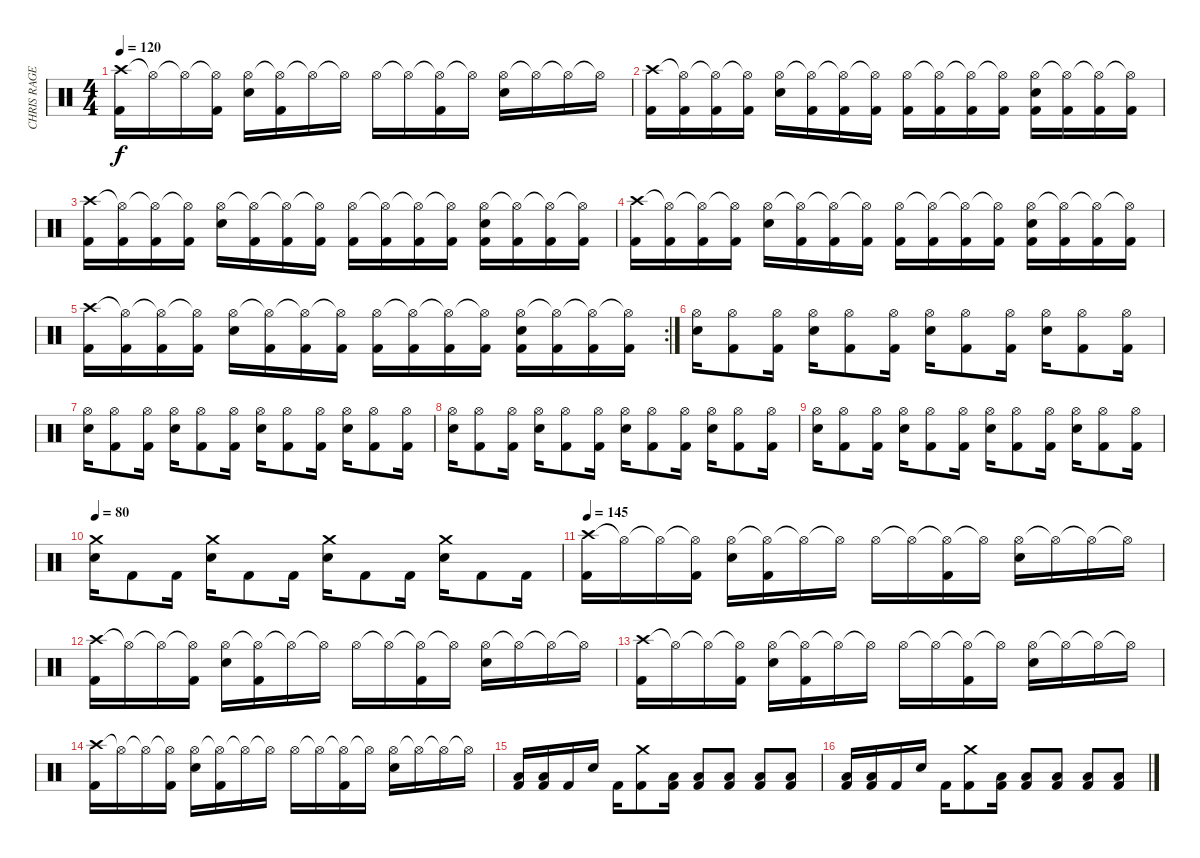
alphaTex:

\track ("CHRIS RAGE" "CHRIS RAGE") {instrument percussion}
\staff {score}
\articulation defaults
\ts (4 4)
\tempo 120
\clef neutral
\ks c
("Crash high (hit)" "Kick (hit) 2").16{dy f} "Hi-Hat (open)"{t}.16 "Hi-Hat (open)"{t}.16 ("Hi-Hat (open)"{t} "Kick (hit) 2").16 ("Hi-Hat (open)" "Electric Snare (hit)").16 ("Hi-Hat (open)"{t} "Kick (hit) 2").16 "Hi-Hat (open)"{t}.16 "Hi-Hat (open)"{t}.16 "Hi-Hat (open)".16 "Hi-Hat (open)"{t}.16 ("Hi-Hat (open)"{t} "Kick (hit) 2").16 "Hi-Hat (open)"{t}.16 ("Hi-Hat (open)" "Electric Snare (hit)").16 "Hi-Hat (open)"{t}.16 "Hi-Hat (open)"{t}.16 "Hi-Hat (open)"{t}.16 |
("Crash high (hit)" "Kick (hit) 2").16 ("Hi-Hat (open)"{t} "Kick (hit) 2").16 ("Hi-Hat (open)"{t} "Kick (hit) 2").16 ("Hi-Hat (open)"{t} "Kick (hit) 2").16 ("Hi-Hat (open)" "Electric Snare (hit)").16 ("Hi-Hat (open)"{t} "Kick (hit) 2").16 ("Hi-Hat (open)"{t} "Kick (hit) 2").16 ("Hi-Hat (open)"{t} "Kick (hit) 2").16 ("Hi-Hat (open)" "Kick (hit) 2").16 ("Hi-Hat (open)"{t} "Kick (hit) 2").16 ("Hi-Hat (open)"{t} "Kick (hit) 2").16 ("Hi-Hat (open)"{t} "Kick (hit) 2").16 ("Hi-Hat (open)" "Electric Snare (hit)" "Kick (hit) 2").16 ("Hi-Hat (open)"{t} "Kick (hit) 2").16 ("Hi-Hat (open)"{t} "Kick (hit) 2").16 ("Hi-Hat (open)"{t} "Kick (hit) 2").16 |
("Crash high (hit)" "Kick (hit) 2").16 ("Hi-Hat (open)"{t} "Kick (hit) 2").16 ("Hi-Hat (open)"{t} "Kick (hit) 2").16 ("Hi-Hat (open)"{t} "Kick (hit) 2").16 ("Hi-Hat (open)" "Electric Snare (hit)").16 ("Hi-Hat (open)"{t} "Kick (hit) 2").16 ("Hi-Hat (open)"{t} "Kick (hit) 2").16 ("Hi-Hat (open)"{t} "Kick (hit) 2").16 ("Hi-Hat (open)" "Kick (hit) 2").16 ("Hi-Hat (open)"{t} "Kick (hit) 2").16 ("Hi-Hat (open)"{t} "Kick (hit) 2").16 ("Hi-Hat (open)"{t} "Kick (hit) 2").16 ("Hi-Hat (open)" "Electric Snare (hit)" "Kick (hit) 2").16 ("Hi-Hat (open)"{t} "Kick (hit) 2").16 ("Hi-Hat (open)"{t} "Kick (hit) 2").16 ("Hi-Hat (open)"{t} "Kick (hit) 2").16 |
("Crash high (hit)" "Kick (hit) 2").16 ("Hi-Hat (open)"{t} "Kick (hit) 2").16 ("Hi-Hat (open)"{t} "Kick (hit) 2").16 ("Hi-Hat (open)"{t} "Kick (hit) 2").16 ("Hi-Hat (open)" "Electric Snare (hit)").16 ("Hi-Hat (open)"{t} "Kick (hit) 2").16 ("Hi-Hat (open)"{t} "Kick (hit) 2").16 ("Hi-Hat (open)"{t} "Kick (hit) 2").16 ("Hi-Hat (open)" "Kick (hit) 2").16 ("Hi-Hat (open)"{t} "Kick (hit) 2").16 ("Hi-Hat (open)"{t} "Kick (hit) 2").16 ("Hi-Hat (open)"{t} "Kick (hit) 2").16 ("Hi-Hat (open)" "Electric Snare (hit)" "Kick (hit) 2").16 ("Hi-Hat (open)"{t} "Kick (hit) 2").16 ("Hi-Hat (open)"{t} "Kick (hit) 2").16 ("Hi-Hat (open)"{t} "Kick (hit) 2").16 |
\rc 2
("Crash high (hit)" "Kick (hit) 2").16 ("Hi-Hat (open)"{t} "Kick (hit) 2").16 ("Hi-Hat (open)"{t} "Kick (hit) 2").16 ("Hi-Hat (open)"{t} "Kick (hit) 2").16 ("Hi-Hat (open)" "Electric Snare (hit)").16 ("Hi-Hat (open)"{t} "Kick (hit) 2").16 ("Hi-Hat (open)"{t} "Kick (hit) 2").16 ("Hi-Hat (open)"{t} "Kick (hit) 2").16 ("Hi-Hat (open)" "Kick (hit) 2").16 ("Hi-Hat (open)"{t} "Kick (hit) 2").16 ("Hi-Hat (open)"{t} "Kick (hit) 2").16 ("Hi-Hat (open)"{t} "Kick (hit) 2").16 ("Hi-Hat (open)" "Electric Snare (hit)" "Kick (hit) 2").16 ("Hi-Hat (open)"{t} "Kick (hit) 2").16 ("Hi-Hat (open)"{t} "Kick (hit) 2").16 ("Hi-Hat (open)"{t} "Kick (hit) 2").16 |
("Hi-Hat (open)" "Electric Snare (hit)").16 ("Hi-Hat (open)" "Kick (hit) 2").8 ("Hi-Hat (open)" "Kick (hit) 2").16 ("Hi-Hat (open)" "Electric Snare (hit)").16 ("Hi-Hat (open)" "Kick (hit) 2").8 ("Hi-Hat (open)" "Kick (hit) 2").16 ("Hi-Hat (open)" "Electric Snare (hit)").16 ("Hi-Hat (open)" "Kick (hit) 2").8 ("Hi-Hat (open)" "Kick (hit) 2").16 ("Hi-Hat (open)" "Electric Snare (hit)").16 ("Hi-Hat (open)" "Kick (hit) 2").8 ("Hi-Hat (open)" "Kick (hit) 2").16 |
("Hi-Hat (open)" "Electric Snare (hit)").16 ("Hi-Hat (open)" "Kick (hit) 2").8 ("Hi-Hat (open)" "Kick (hit) 2").16 ("Hi-Hat (open)" "Electric Snare (hit)").16 ("Hi-Hat (open)" "Kick (hit) 2").8 ("Hi-Hat (open)" "Kick (hit) 2").16 ("Hi-Hat (open)" "Electric Snare (hit)").16 ("Hi-Hat (open)" "Kick (hit) 2").8 ("Hi-Hat (open)" "Kick (hit) 2").16 ("Hi-Hat (open)" "Electric Snare (hit)").16 ("Hi-Hat (open)" "Kick (hit) 2").8 ("Hi-Hat (open)" "Kick (hit) 2").16 |
("Hi-Hat (open)" "Electric Snare (hit)").16 ("Hi-Hat (open)" "Kick (hit) 2").8 ("Hi-Hat (open)" "Kick (hit) 2").16 ("Hi-Hat (open)" "Electric Snare (hit)").16 ("Hi-Hat (open)" "Kick (hit) 2").8 ("Hi-Hat (open)" "Kick (hit) 2").16 ("Hi-Hat (open)" "Electric Snare (hit)").16 ("Hi-Hat (open)" "Kick (hit) 2").8 ("Hi-Hat (open)" "Kick (hit) 2").16 ("Hi-Hat (open)" "Electric Snare (hit)").16 ("Hi-Hat (open)" "Kick (hit) 2").8 ("Hi-Hat (open)" "Kick (hit) 2").16 |
("Hi-Hat (open)" "Electric Snare (hit)").16 ("Hi-Hat (open)" "Kick (hit) 2").8 ("Hi-Hat (open)" "Kick (hit) 2").16 ("Hi-Hat (open)" "Electric Snare (hit)").16 ("Hi-Hat (open)" "Kick (hit) 2").8 ("Hi-Hat (open)" "Kick (hit) 2").16 ("Hi-Hat (open)" "Electric Snare (hit)").16 ("Hi-Hat (open)" "Kick (hit) 2").8 ("Hi-Hat (open)" "Kick (hit) 2").16 ("Hi-Hat (open)" "Electric Snare (hit)").16 ("Hi-Hat (open)" "Kick (hit) 2").8 ("Hi-Hat (open)" "Kick (hit) 2").16 |
\tempo 80
("Crash medium (hit)" "Electric Snare (hit)").16 "Kick (hit) 2".8 "Kick (hit) 2".16 ("Crash medium (hit)" "Electric Snare (hit)").16 "Kick (hit) 2".8 "Kick (hit) 2".16 ("Crash medium (hit)" "Electric Snare (hit)").16 "Kick (hit) 2".8 "Kick (hit) 2".16 ("Crash medium (hit)" "Electric Snare (hit)").16 "Kick (hit) 2".8 "Kick (hit) 2".16 |
\tempo 145
("Crash high (hit)" "Kick (hit) 2").16 "Hi-Hat (open)"{t}.16 "Hi-Hat (open)"{t}.16 ("Hi-Hat (open)"{t} "Kick (hit) 2").16 ("Hi-Hat (open)" "Electric Snare (hit)").16 ("Hi-Hat (open)"{t} "Kick (hit) 2").16 "Hi-Hat (open)"{t}.16 "Hi-Hat (open)"{t}.16 "Hi-Hat (open)".16 "Hi-Hat (open)"{t}.16 ("Hi-Hat (open)"{t} "Kick (hit) 2").16 "Hi-Hat (open)"{t}.16 ("Hi-Hat (open)" "Electric Snare (hit)").16 "Hi-Hat (open)"{t}.16 "Hi-Hat (open)"{t}.16 "Hi-Hat (open)"{t}.16 |
("Crash high (hit)" "Kick (hit) 2").16 "Hi-Hat (open)"{t}.16 "Hi-Hat (open)"{t}.16 ("Hi-Hat (open)"{t} "Kick (hit) 2").16 ("Hi-Hat (open)" "Electric Snare (hit)").16 ("Hi-Hat (open)"{t} "Kick (hit) 2").16 "Hi-Hat (open)"{t}.16 "Hi-Hat (open)"{t}.16 "Hi-Hat (open)".16 "Hi-Hat (open)"{t}.16 ("Hi-Hat (open)"{t} "Kick (hit) 2").16 "Hi-Hat (open)"{t}.16 ("Hi-Hat (open)" "Electric Snare (hit)").16 "Hi-Hat (open)"{t}.16 "Hi-Hat (open)"{t}.16 "Hi-Hat (open)"{t}.16 |
("Crash high (hit)" "Kick (hit) 2").16 "Hi-Hat (open)"{t}.16 "Hi-Hat (open)"{t}.16 ("Hi-Hat (open)"{t} "Kick (hit) 2").16 ("Hi-Hat (open)" "Electric Snare (hit)").16 ("Hi-Hat (open)"{t} "Kick (hit) 2").16 "Hi-Hat (open)"{t}.16 "Hi-Hat (open)"{t}.16 "Hi-Hat (open)".16 "Hi-Hat (open)"{t}.16 ("Hi-Hat (open)"{t} "Kick (hit) 2").16 "Hi-Hat (open)"{t}.16 ("Hi-Hat (open)" "Electric Snare (hit)").16 "Hi-Hat (open)"{t}.16 "Hi-Hat (open)"{t}.16 "Hi-Hat (open)"{t}.16 |
("Crash high (hit)" "Kick (hit) 2").16 "Hi-Hat (open)"{t}.16 "Hi-Hat (open)"{t}.16 ("Hi-Hat (open)"{t} "Kick (hit) 2").16 ("Hi-Hat (open)" "Electric Snare (hit)").16 ("Hi-Hat (open)"{t} "Kick (hit) 2").16 "Hi-Hat (open)"{t}.16 "Hi-Hat (open)"{t}.16 "Hi-Hat (open)".16 "Hi-Hat (open)"{t}.16 ("Hi-Hat (open)"{t} "Kick (hit) 2").16 "Hi-Hat (open)"{t}.16 ("Hi-Hat (open)" "Electric Snare (hit)").16 "Hi-Hat (open)"{t}.16 "Hi-Hat (open)"{t}.16 "Hi-Hat (open)"{t}.16 |
("Low Tom (hit)" "Kick (hit) 2").16 ("Low Tom (hit)" "Kick (hit) 2").16 "Kick (hit) 2".16 "Electric Snare (hit)".16 "Kick (hit) 2".16 ("Crash medium (hit)" "Kick (hit) 2").8 ("Low Tom (hit)" "Kick (hit) 2").16 ("Low Tom (hit)" "Kick (hit) 2").8 ("Low Tom (hit)" "Kick (hit) 2").8 ("Low Tom (hit)" "Kick (hit) 2").8 ("Low Tom (hit)" "Kick (hit) 2").8 |
("Low Tom (hit)" "Kick (hit) 2").16 ("Low Tom (hit)" "Kick (hit) 2").16 "Kick (hit) 2".16 "Electric Snare (hit)".16 "Kick (hit) 2".16 ("Crash medium (hit)" "Kick (hit) 2").8 ("Low Tom (hit)" "Kick (hit) 2").16 ("Low Tom (hit)" "Kick (hit) 2").8 ("Low Tom (hit)" "Kick (hit) 2").8 ("Low Tom (hit)" "Kick (hit) 2").8 ("Low Tom (hit)" "Kick (hit) 2").8
